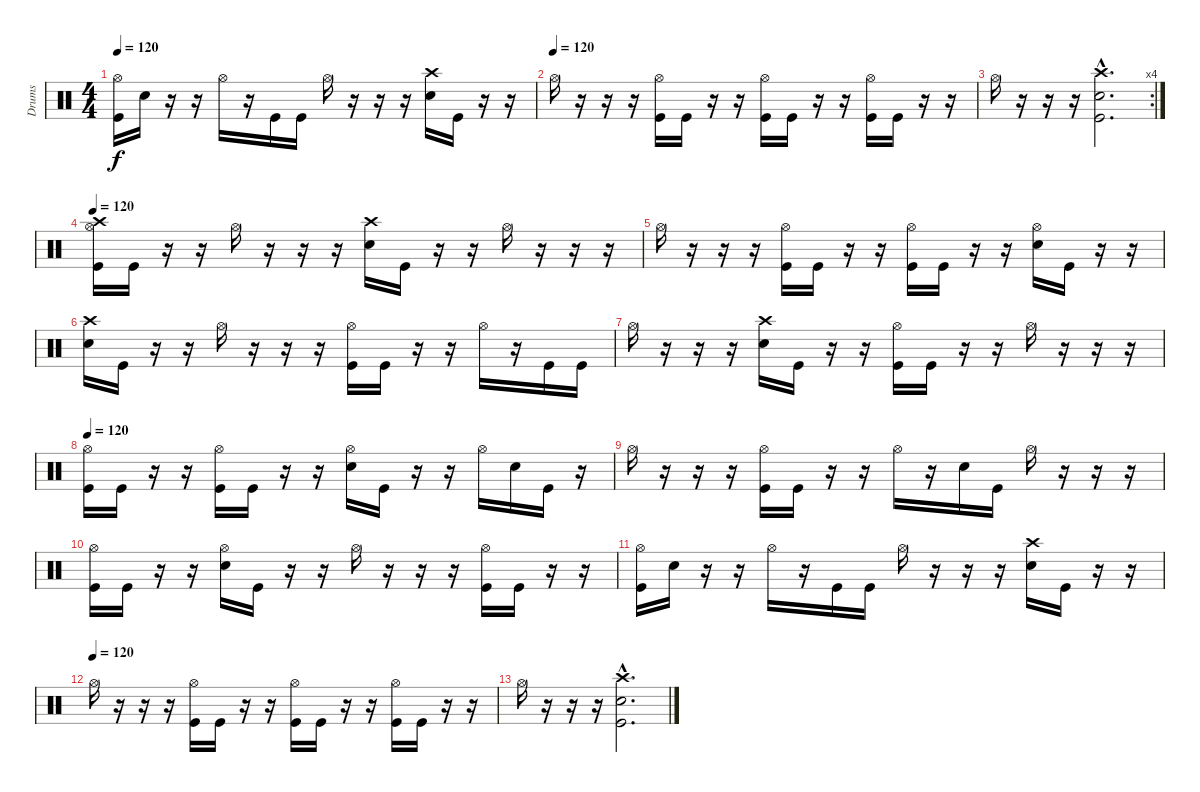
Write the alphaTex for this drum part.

\track ("Drums" "Drums") {instrument percussion}
\staff {score}
\articulation defaults
\ts (4 4)
\tempo 120
\clef neutral
\ks c
("Hi-Hat (open)" "Kick (hit)").16{dy f} "Snare (hit) 2".16 r.16 r.16 "Hi-Hat (open)".16 r.16 "Kick (hit)".16 "Kick (hit)".16 "Hi-Hat (open)".16 r.16 r.16 r.16 ("Crash high (hit)" "Snare (hit) 2").16 "Kick (hit)".16 r.16 r.16 |
\tempo (120)
"Hi-Hat (open)".16 r.16 r.16 r.16 ("Hi-Hat (open)" "Kick (hit)").16 "Kick (hit)".16 r.16 r.16 ("Hi-Hat (open)" "Kick (hit)").16 "Kick (hit)".16 r.16 r.16 ("Hi-Hat (open)" "Kick (hit)").16 "Kick (hit)".16 r.16 r.16 |
\rc 4 "Hi-Hat (open)".16
r.16 r.16 r.16 ("Crash high (hit)"{hac} "Snare (hit) 2"{hac} "Kick (hit)"{hac}).2{d} |
\tempo 120
("Crash high (hit)" "Hi-Hat (open)" "Kick (hit)").16 "Kick (hit)".16 r.16 r.16 "Hi-Hat (open)".16 r.16 r.16 r.16 ("Crash high (hit)" "Snare (hit) 2").16 "Kick (hit)".16 r.16 r.16 "Hi-Hat (open)".16 r.16 r.16 r.16 |
"Hi-Hat (open)".16 r.16 r.16 r.16 ("Hi-Hat (open)" "Kick (hit)").16 "Kick (hit)".16 r.16 r.16 ("Hi-Hat (open)" "Kick (hit)").16 "Kick (hit)".16 r.16 r.16 ("Hi-Hat (open)" "Snare (hit) 2").16 "Kick (hit)".16 r.16 r.16 |
("Crash high (hit)" "Snare (hit) 2").16 "Kick (hit)".16 r.16 r.16 "Hi-Hat (open)".16 r.16 r.16 r.16 ("Hi-Hat (open)" "Kick (hit)").16 "Kick (hit)".16 r.16 r.16 "Hi-Hat (open)".16 r.16 "Kick (hit)".16 "Kick (hit)".16 |
"Hi-Hat (open)".16 r.16 r.16 r.16 ("Crash high (hit)" "Snare (hit) 2").16 "Kick (hit)".16 r.16 r.16 ("Hi-Hat (open)" "Kick (hit)").16 "Kick (hit)".16 r.16 r.16 "Hi-Hat (open)".16 r.16 r.16 r.16 |
\tempo 120
("Hi-Hat (open)" "Kick (hit)").16 "Kick (hit)".16 r.16 r.16 ("Hi-Hat (open)" "Kick (hit)").16 "Kick (hit)".16 r.16 r.16 ("Hi-Hat (open)" "Snare (hit) 2").16 "Kick (hit)".16 r.16 r.16 "Hi-Hat (open)".16 "Snare (hit) 2".16 "Kick (hit)".16 r.16 |
"Hi-Hat (open)".16 r.16 r.16 r.16 ("Hi-Hat (open)" "Kick (hit)").16 "Kick (hit)".16 r.16 r.16 "Hi-Hat (open)".16 r.16 "Snare (hit) 2".16 "Kick (hit)".16 "Hi-Hat (open)".16 r.16 r.16 r.16 |
("Hi-Hat (open)" "Kick (hit)").16 "Kick (hit)".16 r.16 r.16 ("Hi-Hat (open)" "Snare (hit) 2").16 "Kick (hit)".16 r.16 r.16 "Hi-Hat (open)".16 r.16 r.16 r.16 ("Hi-Hat (open)" "Kick (hit)").16 "Kick (hit)".16 r.16 r.16 |
("Hi-Hat (open)" "Kick (hit)").16 "Snare (hit) 2".16 r.16 r.16 "Hi-Hat (open)".16 r.16 "Kick (hit)".16 "Kick (hit)".16 "Hi-Hat (open)".16 r.16 r.16 r.16 ("Crash high (hit)" "Snare (hit) 2").16 "Kick (hit)".16 r.16 r.16 |
\tempo (120)
"Hi-Hat (open)".16 r.16 r.16 r.16 ("Hi-Hat (open)" "Kick (hit)").16 "Kick (hit)".16 r.16 r.16 ("Hi-Hat (open)" "Kick (hit)").16 "Kick (hit)".16 r.16 r.16 ("Hi-Hat (open)" "Kick (hit)").16 "Kick (hit)".16 r.16 r.16 |
"Hi-Hat (open)".16 r.16 r.16 r.16 ("Crash high (hit)"{hac} "Snare (hit) 2"{hac} "Kick (hit)"{hac}).2{d}
